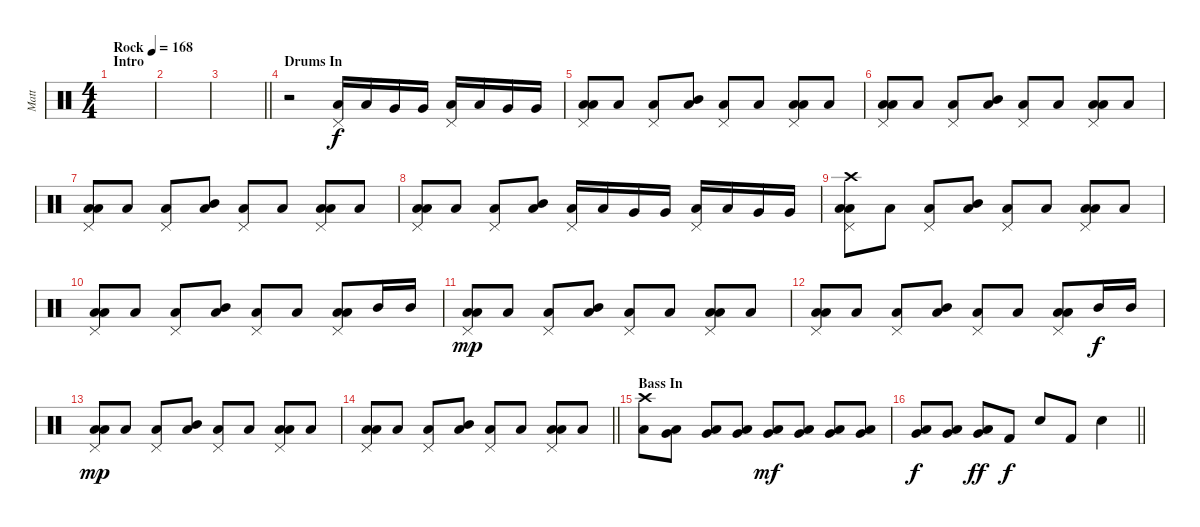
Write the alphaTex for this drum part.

\track ("Matt" "Matt") {instrument percussion}
\staff {score}
\articulation defaults
\ts (4 4)
\section ("" "Intro")
\tempo (168 "Rock")
\clef neutral
\ks c
|
|
\barLineRight lightlight
|
\section ("" "Drums In")
r.2 ("Pedal Hi-Hat (hit)" "Low Tom (hit)").16 "Low Tom (hit)".16 "Very Low Tom (hit)".16 "Very Low Tom (hit)".16 ("Pedal Hi-Hat (hit)" "Low Tom (hit)").16 "Low Tom (hit)".16 "Very Low Tom (hit)".16 "Very Low Tom (hit)".16 |
("Pedal Hi-Hat (hit)" "Low Tom (hit)" "Low Tom (hit)").8 "Low Tom (hit)".8 ("Pedal Hi-Hat (hit)" "Low Tom (hit)").8 ("Mid Tom (hit)" "Low Tom (hit)").8 ("Pedal Hi-Hat (hit)" "Low Tom (hit)").8 "Low Tom (hit)".8 ("Pedal Hi-Hat (hit)" "Low Tom (hit)" "Low Tom (hit)").8 "Low Tom (hit)".8 |
("Pedal Hi-Hat (hit)" "Low Tom (hit)" "Low Tom (hit)").8 "Low Tom (hit)".8 ("Pedal Hi-Hat (hit)" "Low Tom (hit)").8 ("Mid Tom (hit)" "Low Tom (hit)").8 ("Pedal Hi-Hat (hit)" "Low Tom (hit)").8 "Low Tom (hit)".8 ("Pedal Hi-Hat (hit)" "Low Tom (hit)" "Low Tom (hit)").8 "Low Tom (hit)".8 |
("Pedal Hi-Hat (hit)" "Low Tom (hit)" "Low Tom (hit)").8 "Low Tom (hit)".8 ("Pedal Hi-Hat (hit)" "Low Tom (hit)").8 ("Mid Tom (hit)" "Low Tom (hit)").8 ("Pedal Hi-Hat (hit)" "Low Tom (hit)").8 "Low Tom (hit)".8 ("Pedal Hi-Hat (hit)" "Low Tom (hit)" "Low Tom (hit)").8 "Low Tom (hit)".8 |
("Pedal Hi-Hat (hit)" "Low Tom (hit)" "Low Tom (hit)").8 "Low Tom (hit)".8 ("Pedal Hi-Hat (hit)" "Low Tom (hit)").8 ("Mid Tom (hit)" "Low Tom (hit)").8 ("Pedal Hi-Hat (hit)" "Low Tom (hit)").16 "Low Tom (hit)".16 "Very Low Tom (hit)".16 "Very Low Tom (hit)".16 ("Pedal Hi-Hat (hit)" "Low Tom (hit)").16 "Low Tom (hit)".16 "Very Low Tom (hit)".16 "Very Low Tom (hit)".16 |
("Crash high (hit)" "Pedal Hi-Hat (hit)" "Low Tom (hit)" "Low Tom (hit)").8 "Low Tom (hit)".8 ("Pedal Hi-Hat (hit)" "Low Tom (hit)").8 ("Mid Tom (hit)" "Low Tom (hit)").8 ("Pedal Hi-Hat (hit)" "Low Tom (hit)").8 "Low Tom (hit)".8 ("Pedal Hi-Hat (hit)" "Low Tom (hit)" "Low Tom (hit)").8 "Low Tom (hit)".8 |
("Pedal Hi-Hat (hit)" "Low Tom (hit)" "Low Tom (hit)").8 "Low Tom (hit)".8 ("Pedal Hi-Hat (hit)" "Low Tom (hit)").8 ("Mid Tom (hit)" "Low Tom (hit)").8 ("Pedal Hi-Hat (hit)" "Low Tom (hit)").8 "Low Tom (hit)".8 ("Pedal Hi-Hat (hit)" "Low Tom (hit)" "Low Tom (hit)").8 "Mid Tom (hit)".16{dy f} "Mid Tom (hit)".16 |
("Pedal Hi-Hat (hit)" "Low Tom (hit)" "Low Tom (hit)").8{dy mp} "Low Tom (hit)".8 ("Pedal Hi-Hat (hit)" "Low Tom (hit)").8 ("Mid Tom (hit)" "Low Tom (hit)").8 ("Pedal Hi-Hat (hit)" "Low Tom (hit)").8 "Low Tom (hit)".8 ("Pedal Hi-Hat (hit)" "Low Tom (hit)" "Low Tom (hit)").8 "Low Tom (hit)".8 |
("Pedal Hi-Hat (hit)" "Low Tom (hit)" "Low Tom (hit)").8 "Low Tom (hit)".8 ("Pedal Hi-Hat (hit)" "Low Tom (hit)").8 ("Mid Tom (hit)" "Low Tom (hit)").8 ("Pedal Hi-Hat (hit)" "Low Tom (hit)").8 "Low Tom (hit)".8 ("Pedal Hi-Hat (hit)" "Low Tom (hit)" "Low Tom (hit)").8 "Mid Tom (hit)".16{dy f} "Mid Tom (hit)".16 |
("Pedal Hi-Hat (hit)" "Low Tom (hit)" "Low Tom (hit)").8{dy mp} "Low Tom (hit)".8 ("Pedal Hi-Hat (hit)" "Low Tom (hit)").8 ("Mid Tom (hit)" "Low Tom (hit)").8 ("Pedal Hi-Hat (hit)" "Low Tom (hit)").8 "Low Tom (hit)".8 ("Pedal Hi-Hat (hit)" "Low Tom (hit)" "Low Tom (hit)").8 "Low Tom (hit)".8 |
\barLineRight lightlight
("Pedal Hi-Hat (hit)" "Low Tom (hit)" "Low Tom (hit)").8 "Low Tom (hit)".8 ("Pedal Hi-Hat (hit)" "Low Tom (hit)").8 ("Mid Tom (hit)" "Low Tom (hit)").8 ("Pedal Hi-Hat (hit)" "Low Tom (hit)").8 "Low Tom (hit)".8 ("Pedal Hi-Hat (hit)" "Low Tom (hit)" "Low Tom (hit)").8 "Low Tom (hit)".8 |
\section ("" "Bass In")
("Crash high (hit)" "Low Tom (hit)").8 ("Low Tom (hit)" "Very Low Tom (hit)").8 ("Low Tom (hit)" "Very Low Tom (hit)").8 ("Low Tom (hit)" "Very Low Tom (hit)").8 ("Low Tom (hit)" "Very Low Tom (hit)").8{dy mf} ("Low Tom (hit)" "Very Low Tom (hit)").8 ("Low Tom (hit)" "Very Low Tom (hit)").8 ("Low Tom (hit)" "Very Low Tom (hit)").8 |
\barLineRight lightlight
("Low Tom (hit)" "Very Low Tom (hit)").8{dy f} ("Low Tom (hit)" "Very Low Tom (hit)").8 ("Low Tom (hit)" "Very Low Tom (hit)").8{dy ff} "Kick (hit) 2".8{dy f} "Electric Snare (hit)".8 "Kick (hit) 2".8 "Electric Snare (hit)".4
